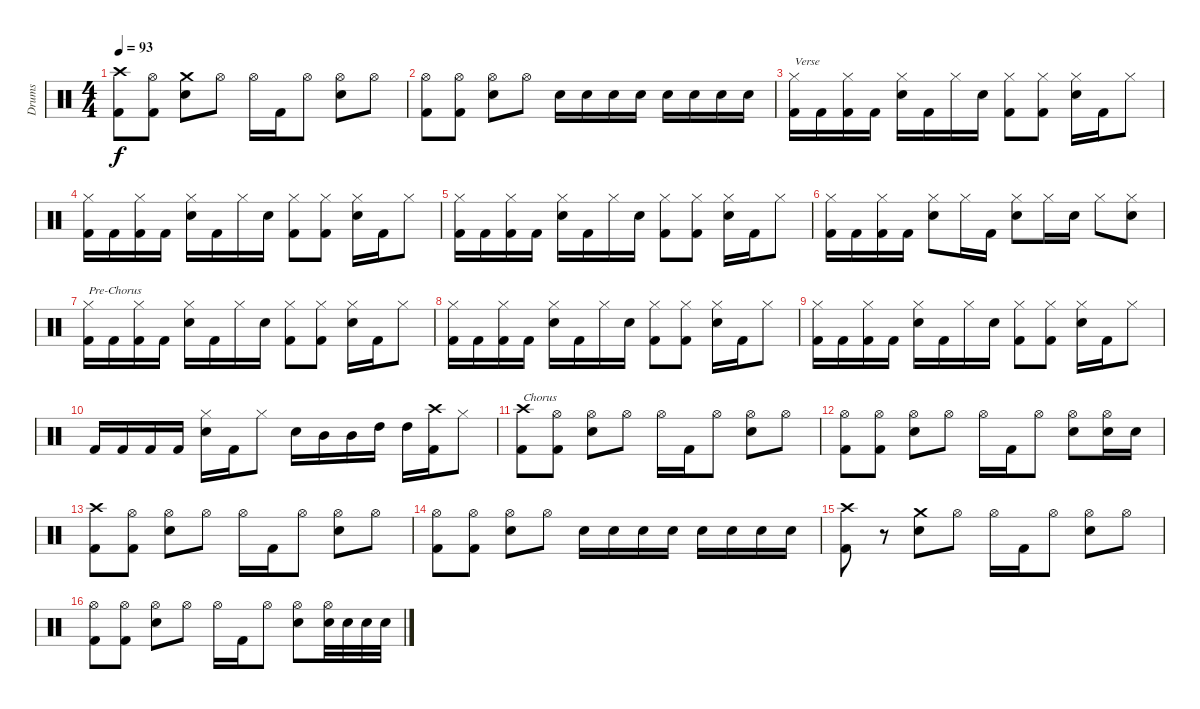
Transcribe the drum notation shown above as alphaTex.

\track ("Drums" "Drums") {instrument percussion}
\staff {score}
\articulation defaults
\ts (4 4)
\tempo 93
\clef neutral
\ks c
("Crash high (hit)" "Kick (hit) 2").8{dy f} ("Hi-Hat (open)" "Kick (hit) 2").8 ("Crash medium (hit)" "Electric Snare (hit)").8 "Hi-Hat (open)".8 "Hi-Hat (open)".16 "Kick (hit) 2".16 "Hi-Hat (open)".8 ("Hi-Hat (open)" "Electric Snare (hit)").8 "Hi-Hat (open)".8 |
("Hi-Hat (open)" "Kick (hit) 2").8 ("Hi-Hat (open)" "Kick (hit) 2").8 ("Hi-Hat (open)" "Electric Snare (hit)").8 "Hi-Hat (open)".8 "Electric Snare (hit)".16 "Electric Snare (hit)".16 "Electric Snare (hit)".16 "Electric Snare (hit)".16 "Electric Snare (hit)".16 "Electric Snare (hit)".16 "Electric Snare (hit)".16 "Electric Snare (hit)".16 |
("Hi-Hat (closed)" "Kick (hit) 2").16{txt "Verse"} "Kick (hit) 2".16 ("Hi-Hat (closed)" "Kick (hit) 2").16 "Kick (hit) 2".16 ("Hi-Hat (closed)" "Electric Snare (hit)").16 "Kick (hit) 2".16 "Hi-Hat (closed)".16 "Electric Snare (hit)".16 ("Hi-Hat (closed)" "Kick (hit) 2").8 ("Hi-Hat (closed)" "Kick (hit) 2").8 ("Hi-Hat (closed)" "Electric Snare (hit)").16 "Kick (hit) 2".16 "Hi-Hat (closed)".8 |
("Hi-Hat (closed)" "Kick (hit) 2").16 "Kick (hit) 2".16 ("Hi-Hat (closed)" "Kick (hit) 2").16 "Kick (hit) 2".16 ("Hi-Hat (closed)" "Electric Snare (hit)").16 "Kick (hit) 2".16 "Hi-Hat (closed)".16 "Electric Snare (hit)".16 ("Hi-Hat (closed)" "Kick (hit) 2").8 ("Hi-Hat (closed)" "Kick (hit) 2").8 ("Hi-Hat (closed)" "Electric Snare (hit)").16 "Kick (hit) 2".16 "Hi-Hat (closed)".8 |
("Hi-Hat (closed)" "Kick (hit) 2").16 "Kick (hit) 2".16 ("Hi-Hat (closed)" "Kick (hit) 2").16 "Kick (hit) 2".16 ("Hi-Hat (closed)" "Electric Snare (hit)").16 "Kick (hit) 2".16 "Hi-Hat (closed)".16 "Electric Snare (hit)".16 ("Hi-Hat (closed)" "Kick (hit) 2").8 ("Hi-Hat (closed)" "Kick (hit) 2").8 ("Hi-Hat (closed)" "Electric Snare (hit)").16 "Kick (hit) 2".16 "Hi-Hat (closed)".8 |
("Hi-Hat (closed)" "Kick (hit) 2").16 "Kick (hit) 2".16 ("Hi-Hat (closed)" "Kick (hit) 2").16 "Kick (hit) 2".16 ("Hi-Hat (closed)" "Electric Snare (hit)").8 "Hi-Hat (closed)".16 "Kick (hit) 2".16 ("Hi-Hat (closed)" "Electric Snare (hit)").8 "Hi-Hat (closed)".16 "Electric Snare (hit)".16 "Hi-Hat (closed)".8 ("Hi-Hat (closed)" "Electric Snare (hit)").8 |
("Hi-Hat (closed)" "Kick (hit) 2").16{txt "Pre-Chorus"} "Kick (hit) 2".16 ("Hi-Hat (closed)" "Kick (hit) 2").16 "Kick (hit) 2".16 ("Hi-Hat (closed)" "Electric Snare (hit)").16 "Kick (hit) 2".16 "Hi-Hat (closed)".16 "Electric Snare (hit)".16 ("Hi-Hat (closed)" "Kick (hit) 2").8 ("Hi-Hat (closed)" "Kick (hit) 2").8 ("Hi-Hat (closed)" "Electric Snare (hit)").16 "Kick (hit) 2".16 "Hi-Hat (closed)".8 |
("Hi-Hat (closed)" "Kick (hit) 2").16 "Kick (hit) 2".16 ("Hi-Hat (closed)" "Kick (hit) 2").16 "Kick (hit) 2".16 ("Hi-Hat (closed)" "Electric Snare (hit)").16 "Kick (hit) 2".16 "Hi-Hat (closed)".16 "Electric Snare (hit)".16 ("Hi-Hat (closed)" "Kick (hit) 2").8 ("Hi-Hat (closed)" "Kick (hit) 2").8 ("Hi-Hat (closed)" "Electric Snare (hit)").16 "Kick (hit) 2".16 "Hi-Hat (closed)".8 |
("Hi-Hat (closed)" "Kick (hit) 2").16 "Kick (hit) 2".16 ("Hi-Hat (closed)" "Kick (hit) 2").16 "Kick (hit) 2".16 ("Hi-Hat (closed)" "Electric Snare (hit)").16 "Kick (hit) 2".16 "Hi-Hat (closed)".16 "Electric Snare (hit)".16 ("Hi-Hat (closed)" "Kick (hit) 2").8 ("Hi-Hat (closed)" "Kick (hit) 2").8 ("Hi-Hat (closed)" "Electric Snare (hit)").16 "Kick (hit) 2".16 "Hi-Hat (closed)".8 |
"Kick (hit) 2".16 "Kick (hit) 2".16 "Kick (hit) 2".16 "Kick (hit) 2".16 ("Hi-Hat (closed)" "Electric Snare (hit)").16 "Kick (hit) 2".16 "Hi-Hat (closed)".8 "Electric Snare (hit)".16 "Mid Tom (hit)".16 "Mid Tom (hit)".16 "High Tom (hit)".16 "High Tom (hit)".16 ("Crash high (hit)" "Kick (hit) 2").16 "Hi-Hat (closed)".8 |
("Crash high (hit)" "Kick (hit) 2").8{txt "Chorus"} ("Hi-Hat (open)" "Kick (hit) 2").8 ("Hi-Hat (open)" "Electric Snare (hit)").8 "Hi-Hat (open)".8 "Hi-Hat (open)".16 "Kick (hit) 2".16 "Hi-Hat (open)".8 ("Hi-Hat (open)" "Electric Snare (hit)").8 "Hi-Hat (open)".8 |
("Hi-Hat (open)" "Kick (hit) 2").8 ("Hi-Hat (open)" "Kick (hit) 2").8 ("Hi-Hat (open)" "Electric Snare (hit)").8 "Hi-Hat (open)".8 "Hi-Hat (open)".16 "Kick (hit) 2".16 "Hi-Hat (open)".8 ("Hi-Hat (open)" "Electric Snare (hit)").8 ("Hi-Hat (open)" "Electric Snare (hit)").16 "Electric Snare (hit)".16 |
("Crash high (hit)" "Kick (hit) 2").8 ("Hi-Hat (open)" "Kick (hit) 2").8 ("Hi-Hat (open)" "Electric Snare (hit)").8 "Hi-Hat (open)".8 "Hi-Hat (open)".16 "Kick (hit) 2".16 "Hi-Hat (open)".8 ("Hi-Hat (open)" "Electric Snare (hit)").8 "Hi-Hat (open)".8 |
("Hi-Hat (open)" "Kick (hit) 2").8 ("Hi-Hat (open)" "Kick (hit) 2").8 ("Hi-Hat (open)" "Electric Snare (hit)").8 "Hi-Hat (open)".8 "Electric Snare (hit)".16 "Electric Snare (hit)".16 "Electric Snare (hit)".16 "Electric Snare (hit)".16 "Electric Snare (hit)".16 "Electric Snare (hit)".16 "Electric Snare (hit)".16 "Electric Snare (hit)".16 |
("Crash high (hit)" "Kick (hit) 2").8 r.8 ("Crash medium (hit)" "Electric Snare (hit)").8 "Hi-Hat (open)".8 "Hi-Hat (open)".16 "Kick (hit) 2".16 "Hi-Hat (open)".8 ("Hi-Hat (open)" "Electric Snare (hit)").8 "Hi-Hat (open)".8 |
("Hi-Hat (open)" "Kick (hit) 2").8 ("Hi-Hat (open)" "Kick (hit) 2").8 ("Hi-Hat (open)" "Electric Snare (hit)").8 "Hi-Hat (open)".8 "Hi-Hat (open)".16 "Kick (hit) 2".16 "Hi-Hat (open)".8 ("Hi-Hat (open)" "Electric Snare (hit)").8 ("Hi-Hat (open)" "Electric Snare (hit)").32 "Electric Snare (hit)".32 "Electric Snare (hit)".32 "Electric Snare (hit)".32
